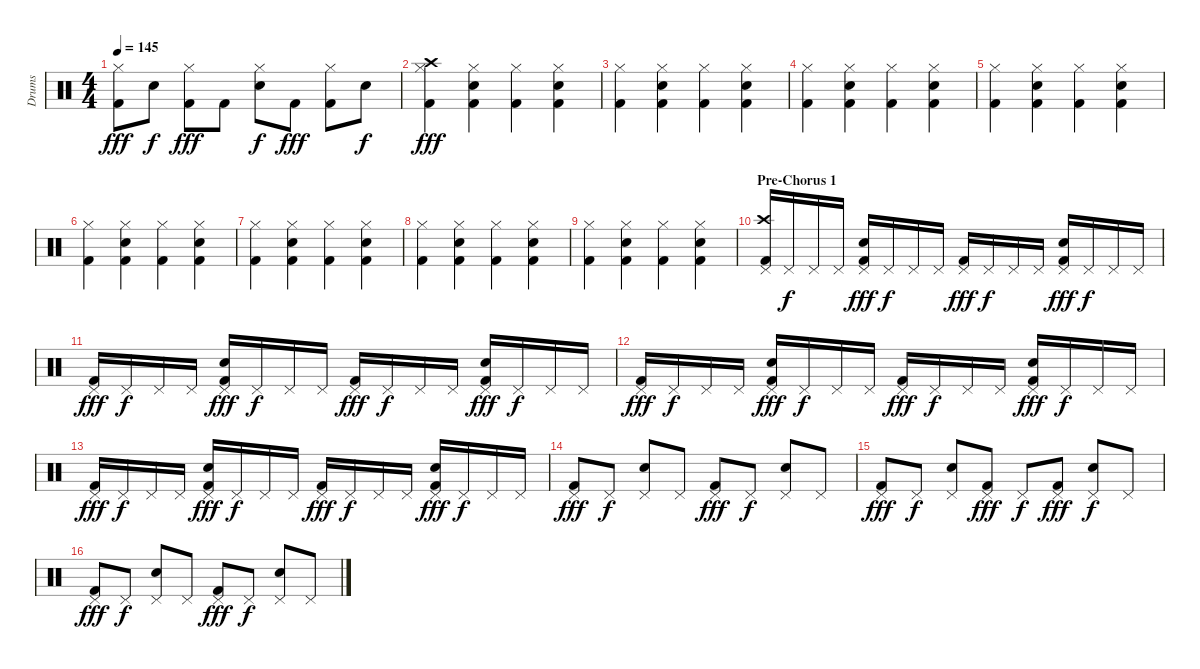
\track ("Drums" "Drums") {instrument percussion}
\staff {score}
\articulation defaults
\ts (4 4)
\tempo 145
\clef neutral
\ks c
("Hi-Hat (closed)" "Kick (hit) 2").8{dy fff} "Electric Snare (hit)".8{dy f} ("Hi-Hat (closed)" "Kick (hit) 2").8{dy fff} "Kick (hit) 2".8 ("Hi-Hat (closed)" "Electric Snare (hit)").8{dy f} "Kick (hit) 2".8{dy fff} ("Hi-Hat (closed)" "Kick (hit) 2").8 "Electric Snare (hit)".8{dy f} |
("Crash high (hit)" "Hi-Hat (closed)" "Kick (hit) 2").4{dy fff} ("Hi-Hat (closed)" "Electric Snare (hit)" "Kick (hit) 2").4 ("Hi-Hat (closed)" "Kick (hit) 2").4 ("Hi-Hat (closed)" "Electric Snare (hit)" "Kick (hit) 2").4 |
("Hi-Hat (closed)" "Kick (hit) 2").4 ("Hi-Hat (closed)" "Electric Snare (hit)" "Kick (hit) 2").4 ("Hi-Hat (closed)" "Kick (hit) 2").4 ("Hi-Hat (closed)" "Electric Snare (hit)" "Kick (hit) 2").4 |
("Hi-Hat (closed)" "Kick (hit) 2").4 ("Hi-Hat (closed)" "Electric Snare (hit)" "Kick (hit) 2").4 ("Hi-Hat (closed)" "Kick (hit) 2").4 ("Hi-Hat (closed)" "Electric Snare (hit)" "Kick (hit) 2").4 |
("Hi-Hat (closed)" "Kick (hit) 2").4 ("Hi-Hat (closed)" "Electric Snare (hit)" "Kick (hit) 2").4 ("Hi-Hat (closed)" "Kick (hit) 2").4 ("Hi-Hat (closed)" "Electric Snare (hit)" "Kick (hit) 2").4 |
("Hi-Hat (closed)" "Kick (hit) 2").4 ("Hi-Hat (closed)" "Electric Snare (hit)" "Kick (hit) 2").4 ("Hi-Hat (closed)" "Kick (hit) 2").4 ("Hi-Hat (closed)" "Electric Snare (hit)" "Kick (hit) 2").4 |
("Hi-Hat (closed)" "Kick (hit) 2").4 ("Hi-Hat (closed)" "Electric Snare (hit)" "Kick (hit) 2").4 ("Hi-Hat (closed)" "Kick (hit) 2").4 ("Hi-Hat (closed)" "Electric Snare (hit)" "Kick (hit) 2").4 |
("Hi-Hat (closed)" "Kick (hit) 2").4 ("Hi-Hat (closed)" "Electric Snare (hit)" "Kick (hit) 2").4 ("Hi-Hat (closed)" "Kick (hit) 2").4 ("Hi-Hat (closed)" "Electric Snare (hit)" "Kick (hit) 2").4 |
("Hi-Hat (closed)" "Kick (hit) 2").4 ("Hi-Hat (closed)" "Electric Snare (hit)" "Kick (hit) 2").4 ("Hi-Hat (closed)" "Kick (hit) 2").4 ("Hi-Hat (closed)" "Electric Snare (hit)" "Kick (hit) 2").4 |
\section ("" "Pre-Chorus 1")
("Crash high (hit)" "Pedal Hi-Hat (hit)" "Kick (hit) 2").16 "Pedal Hi-Hat (hit)".16{dy f} "Pedal Hi-Hat (hit)".16 "Pedal Hi-Hat (hit)".16 ("Pedal Hi-Hat (hit)" "Electric Snare (hit)" "Kick (hit) 2").16{dy fff} "Pedal Hi-Hat (hit)".16{dy f} "Pedal Hi-Hat (hit)".16 "Pedal Hi-Hat (hit)".16 ("Pedal Hi-Hat (hit)" "Kick (hit) 2").16{dy fff} "Pedal Hi-Hat (hit)".16{dy f} "Pedal Hi-Hat (hit)".16 "Pedal Hi-Hat (hit)".16 ("Pedal Hi-Hat (hit)" "Electric Snare (hit)" "Kick (hit) 2").16{dy fff} "Pedal Hi-Hat (hit)".16{dy f} "Pedal Hi-Hat (hit)".16 "Pedal Hi-Hat (hit)".16 |
("Pedal Hi-Hat (hit)" "Kick (hit) 2").16{dy fff} "Pedal Hi-Hat (hit)".16{dy f} "Pedal Hi-Hat (hit)".16 "Pedal Hi-Hat (hit)".16 ("Pedal Hi-Hat (hit)" "Electric Snare (hit)" "Kick (hit) 2").16{dy fff} "Pedal Hi-Hat (hit)".16{dy f} "Pedal Hi-Hat (hit)".16 "Pedal Hi-Hat (hit)".16 ("Pedal Hi-Hat (hit)" "Kick (hit) 2").16{dy fff} "Pedal Hi-Hat (hit)".16{dy f} "Pedal Hi-Hat (hit)".16 "Pedal Hi-Hat (hit)".16 ("Pedal Hi-Hat (hit)" "Electric Snare (hit)" "Kick (hit) 2").16{dy fff} "Pedal Hi-Hat (hit)".16{dy f} "Pedal Hi-Hat (hit)".16 "Pedal Hi-Hat (hit)".16 |
("Pedal Hi-Hat (hit)" "Kick (hit) 2").16{dy fff} "Pedal Hi-Hat (hit)".16{dy f} "Pedal Hi-Hat (hit)".16 "Pedal Hi-Hat (hit)".16 ("Pedal Hi-Hat (hit)" "Electric Snare (hit)" "Kick (hit) 2").16{dy fff} "Pedal Hi-Hat (hit)".16{dy f} "Pedal Hi-Hat (hit)".16 "Pedal Hi-Hat (hit)".16 ("Pedal Hi-Hat (hit)" "Kick (hit) 2").16{dy fff} "Pedal Hi-Hat (hit)".16{dy f} "Pedal Hi-Hat (hit)".16 "Pedal Hi-Hat (hit)".16 ("Pedal Hi-Hat (hit)" "Electric Snare (hit)" "Kick (hit) 2").16{dy fff} "Pedal Hi-Hat (hit)".16{dy f} "Pedal Hi-Hat (hit)".16 "Pedal Hi-Hat (hit)".16 |
("Pedal Hi-Hat (hit)" "Kick (hit) 2").16{dy fff} "Pedal Hi-Hat (hit)".16{dy f} "Pedal Hi-Hat (hit)".16 "Pedal Hi-Hat (hit)".16 ("Pedal Hi-Hat (hit)" "Electric Snare (hit)" "Kick (hit) 2").16{dy fff} "Pedal Hi-Hat (hit)".16{dy f} "Pedal Hi-Hat (hit)".16 "Pedal Hi-Hat (hit)".16 ("Pedal Hi-Hat (hit)" "Kick (hit) 2").16{dy fff} "Pedal Hi-Hat (hit)".16{dy f} "Pedal Hi-Hat (hit)".16 "Pedal Hi-Hat (hit)".16 ("Pedal Hi-Hat (hit)" "Electric Snare (hit)" "Kick (hit) 2").16{dy fff} "Pedal Hi-Hat (hit)".16{dy f} "Pedal Hi-Hat (hit)".16 "Pedal Hi-Hat (hit)".16 |
("Pedal Hi-Hat (hit)" "Kick (hit) 2").8{dy fff} "Pedal Hi-Hat (hit)".8{dy f} ("Pedal Hi-Hat (hit)" "Electric Snare (hit)").8 "Pedal Hi-Hat (hit)".8 ("Pedal Hi-Hat (hit)" "Kick (hit) 2").8{dy fff} "Pedal Hi-Hat (hit)".8{dy f} ("Pedal Hi-Hat (hit)" "Electric Snare (hit)").8 "Pedal Hi-Hat (hit)".8 |
("Pedal Hi-Hat (hit)" "Kick (hit) 2").8{dy fff} "Pedal Hi-Hat (hit)".8{dy f} ("Pedal Hi-Hat (hit)" "Electric Snare (hit)").8 ("Pedal Hi-Hat (hit)" "Kick (hit) 2").8{dy fff} "Pedal Hi-Hat (hit)".8{dy f} ("Pedal Hi-Hat (hit)" "Kick (hit) 2").8{dy fff} ("Pedal Hi-Hat (hit)" "Electric Snare (hit)").8{dy f} "Pedal Hi-Hat (hit)".8 |
("Pedal Hi-Hat (hit)" "Kick (hit) 2").8{dy fff} "Pedal Hi-Hat (hit)".8{dy f} ("Pedal Hi-Hat (hit)" "Electric Snare (hit)").8 "Pedal Hi-Hat (hit)".8 ("Pedal Hi-Hat (hit)" "Kick (hit) 2").8{dy fff} "Pedal Hi-Hat (hit)".8{dy f} ("Pedal Hi-Hat (hit)" "Electric Snare (hit)").8 "Pedal Hi-Hat (hit)".8
